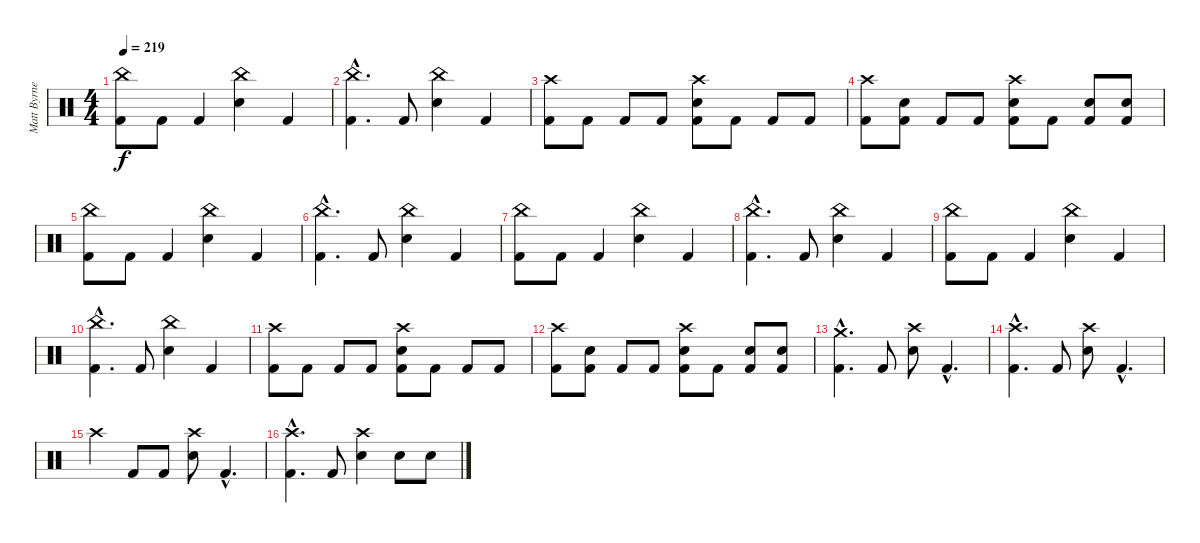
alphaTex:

\track ("Matt Byrne (Drums)" "Matt Byrne") {instrument percussion}
\staff {score}
\articulation defaults
\ts (4 4)
\tempo 219
\clef neutral
\ks c
("China (hit)" "Kick (hit) 2").8{dy f} "Kick (hit) 2".8 "Kick (hit) 2".4 ("China (hit)" "Snare (hit) 2").4 "Kick (hit) 2".4 |
("China (hit)"{hac} "Kick (hit) 2"{hac}).4{d} "Kick (hit) 2".8 ("China (hit)" "Snare (hit) 2").4 "Kick (hit) 2".4 |
("Crash high (hit)" "Kick (hit) 2").8 "Kick (hit) 2".8 "Kick (hit) 2".8 "Kick (hit) 2".8 ("Crash high (hit)" "Snare (hit) 2" "Kick (hit) 2").8 "Kick (hit) 2".8 "Kick (hit) 2".8 "Kick (hit) 2".8 |
("Crash high (hit)" "Kick (hit) 2").8 ("Snare (hit) 2" "Kick (hit) 2").8 "Kick (hit) 2".8 "Kick (hit) 2".8 ("Snare (hit) 2" "Crash high (hit)" "Kick (hit) 2").8 "Kick (hit) 2".8 ("Snare (hit) 2" "Kick (hit) 2").8 ("Snare (hit) 2" "Kick (hit) 2").8 |
("China (hit)" "Kick (hit) 2").8 "Kick (hit) 2".8 "Kick (hit) 2".4 ("China (hit)" "Snare (hit) 2").4 "Kick (hit) 2".4 |
("China (hit)"{hac} "Kick (hit) 2"{hac}).4{d} "Kick (hit) 2".8 ("China (hit)" "Snare (hit) 2").4 "Kick (hit) 2".4 |
("China (hit)" "Kick (hit) 2").8 "Kick (hit) 2".8 "Kick (hit) 2".4 ("China (hit)" "Snare (hit) 2").4 "Kick (hit) 2".4 |
("China (hit)"{hac} "Kick (hit) 2"{hac}).4{d} "Kick (hit) 2".8 ("China (hit)" "Snare (hit) 2").4 "Kick (hit) 2".4 |
("China (hit)" "Kick (hit) 2").8 "Kick (hit) 2".8 "Kick (hit) 2".4 ("China (hit)" "Snare (hit) 2").4 "Kick (hit) 2".4 |
("China (hit)"{hac} "Kick (hit) 2"{hac}).4{d} "Kick (hit) 2".8 ("China (hit)" "Snare (hit) 2").4 "Kick (hit) 2".4 |
("Crash high (hit)" "Kick (hit) 2").8 "Kick (hit) 2".8 "Kick (hit) 2".8 "Kick (hit) 2".8 ("Crash high (hit)" "Snare (hit) 2" "Kick (hit) 2").8 "Kick (hit) 2".8 "Kick (hit) 2".8 "Kick (hit) 2".8 |
("Crash high (hit)" "Kick (hit) 2").8 ("Snare (hit) 2" "Kick (hit) 2").8 "Kick (hit) 2".8 "Kick (hit) 2".8 ("Snare (hit) 2" "Crash high (hit)" "Kick (hit) 2").8 "Kick (hit) 2".8 ("Snare (hit) 2" "Kick (hit) 2").8 ("Snare (hit) 2" "Kick (hit) 2").8 |
("Crash medium (hit)"{hac} "Kick (hit) 2"{hac}).4{d} "Kick (hit) 2".8 ("Crash high (hit)" "Snare (hit) 2").8 "Kick (hit) 2"{hac}.4{d} |
("Crash high (hit)"{hac} "Kick (hit) 2"{hac}).4{d} "Kick (hit) 2".8 ("Crash high (hit)" "Snare (hit) 2").8 "Kick (hit) 2"{hac}.4{d} |
"Crash high (hit)".4 "Kick (hit) 2".8 "Kick (hit) 2".8 ("Crash high (hit)" "Snare (hit) 2").8 "Kick (hit) 2"{hac}.4{d} |
("Crash high (hit)"{hac} "Kick (hit) 2"{hac}).4{d} "Kick (hit) 2".8 ("Crash high (hit)" "Snare (hit) 2").4 "Snare (hit) 2".8 "Snare (hit) 2".8
